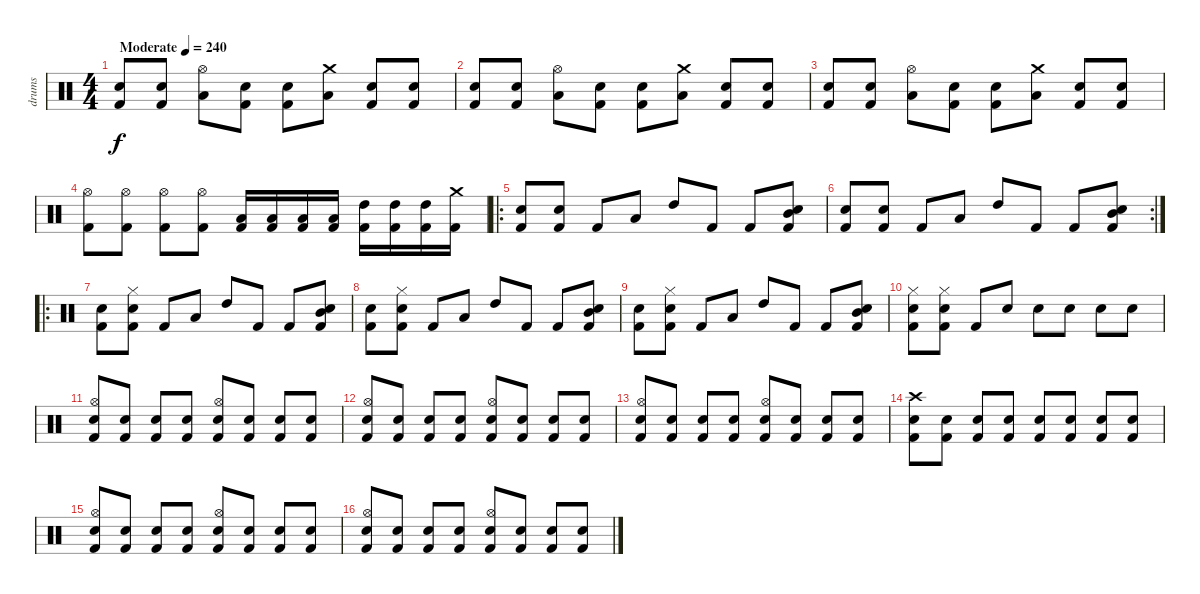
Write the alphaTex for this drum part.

\track ("drums" "drums") {instrument percussion}
\staff {score}
\articulation defaults
\ts (4 4)
\tempo (240 "Moderate")
\clef neutral
\ks c
("Electric Snare (hit)" "Kick (hit) 2").8{dy f} ("Electric Snare (hit)" "Kick (hit) 2").8 ("Low Tom (hit)" "Hi-Hat (open)").8 ("Snare (hit) 2" "Kick (hit) 2").8 ("Snare (hit) 2" "Kick (hit) 2").8 ("Low Tom (hit)" "Crash medium (hit)").8 ("Snare (hit) 2" "Kick (hit) 2").8 ("Snare (hit) 2" "Kick (hit) 2").8 |
("Electric Snare (hit)" "Kick (hit) 2").8 ("Electric Snare (hit)" "Kick (hit) 2").8 ("Low Tom (hit)" "Hi-Hat (open)").8 ("Snare (hit) 2" "Kick (hit) 2").8 ("Snare (hit) 2" "Kick (hit) 2").8 ("Low Tom (hit)" "Crash medium (hit)").8 ("Snare (hit) 2" "Kick (hit) 2").8 ("Snare (hit) 2" "Kick (hit) 2").8 |
("Electric Snare (hit)" "Kick (hit) 2").8 ("Electric Snare (hit)" "Kick (hit) 2").8 ("Low Tom (hit)" "Hi-Hat (open)").8 ("Snare (hit) 2" "Kick (hit) 2").8 ("Snare (hit) 2" "Kick (hit) 2").8 ("Low Tom (hit)" "Crash medium (hit)").8 ("Snare (hit) 2" "Kick (hit) 2").8 ("Snare (hit) 2" "Kick (hit) 2").8 |
("Hi-Hat (open)" "Kick (hit) 2").8 ("Hi-Hat (open)" "Kick (hit) 2").8 ("Hi-Hat (open)" "Kick (hit) 2").8 ("Hi-Hat (open)" "Kick (hit) 2").8 ("Low Tom (hit)" "Kick (hit) 2").16 ("Low Tom (hit)" "Kick (hit) 2").16 ("Low Tom (hit)" "Kick (hit) 2").16 ("Low Tom (hit)" "Kick (hit) 2").16 ("High Tom (hit)" "Kick (hit) 2").16 ("High Tom (hit)" "Kick (hit) 2").16 ("High Tom (hit)" "Kick (hit) 2").16 ("Crash medium (hit)" "Kick (hit) 2").16 |
\ro
("Electric Snare (hit)" "Kick (hit) 2").8 ("Electric Snare (hit)" "Kick (hit) 2").8 "Kick (hit) 2".8 "Low Tom (hit)".8 "High Tom (hit)".8 "Kick (hit) 2".8 "Kick (hit) 2".8 ("Mid Tom (hit)" "Snare (hit) 2" "Kick (hit) 2").8 |
\rc 2
("Electric Snare (hit)" "Kick (hit) 2").8 ("Electric Snare (hit)" "Kick (hit) 2").8 "Kick (hit) 2".8 "Low Tom (hit)".8 "High Tom (hit)".8 "Kick (hit) 2".8 "Kick (hit) 2".8 ("Mid Tom (hit)" "Snare (hit) 2" "Kick (hit) 2").8 |
\ro
("Electric Snare (hit)" "Kick (hit) 2").8 ("Hi-Hat (closed)" "Electric Snare (hit)" "Kick (hit) 2").8 "Kick (hit) 2".8 "Low Tom (hit)".8 "High Tom (hit)".8 "Kick (hit) 2".8 "Kick (hit) 2".8 ("Mid Tom (hit)" "Snare (hit) 2" "Kick (hit) 2").8 |
("Electric Snare (hit)" "Kick (hit) 2").8 ("Hi-Hat (closed)" "Electric Snare (hit)" "Kick (hit) 2").8 "Kick (hit) 2".8 "Low Tom (hit)".8 "High Tom (hit)".8 "Kick (hit) 2".8 "Kick (hit) 2".8 ("Mid Tom (hit)" "Snare (hit) 2" "Kick (hit) 2").8 |
("Electric Snare (hit)" "Kick (hit) 2").8 ("Hi-Hat (closed)" "Electric Snare (hit)" "Kick (hit) 2").8 "Kick (hit) 2".8 "Low Tom (hit)".8 "High Tom (hit)".8 "Kick (hit) 2".8 "Kick (hit) 2".8 ("Mid Tom (hit)" "Snare (hit) 2" "Kick (hit) 2").8 |
("Hi-Hat (closed)" "Electric Snare (hit)" "Kick (hit) 2").8 ("Hi-Hat (closed)" "Electric Snare (hit)" "Kick (hit) 2").8 "Kick (hit) 2".8 "Electric Snare (hit)".8 "Electric Snare (hit)".8 "Electric Snare (hit)".8 "Electric Snare (hit)".8 "Electric Snare (hit)".8 |
("Hi-Hat (open)" "Snare (hit) 2" "Kick (hit) 2").8 ("Snare (hit) 2" "Kick (hit) 2").8 ("Snare (hit) 2" "Kick (hit) 2").8 ("Snare (hit) 2" "Kick (hit) 2").8 ("Hi-Hat (open)" "Snare (hit) 2" "Kick (hit) 2").8 ("Snare (hit) 2" "Kick (hit) 2").8 ("Snare (hit) 2" "Kick (hit) 2").8 ("Snare (hit) 2" "Kick (hit) 2").8 |
("Hi-Hat (open)" "Snare (hit) 2" "Kick (hit) 2").8 ("Snare (hit) 2" "Kick (hit) 2").8 ("Snare (hit) 2" "Kick (hit) 2").8 ("Snare (hit) 2" "Kick (hit) 2").8 ("Hi-Hat (open)" "Snare (hit) 2" "Kick (hit) 2").8 ("Snare (hit) 2" "Kick (hit) 2").8 ("Snare (hit) 2" "Kick (hit) 2").8 ("Snare (hit) 2" "Kick (hit) 2").8 |
("Hi-Hat (open)" "Snare (hit) 2" "Kick (hit) 2").8 ("Snare (hit) 2" "Kick (hit) 2").8 ("Snare (hit) 2" "Kick (hit) 2").8 ("Snare (hit) 2" "Kick (hit) 2").8 ("Hi-Hat (open)" "Snare (hit) 2" "Kick (hit) 2").8 ("Snare (hit) 2" "Kick (hit) 2").8 ("Snare (hit) 2" "Kick (hit) 2").8 ("Snare (hit) 2" "Kick (hit) 2").8 |
("Crash high (hit)" "Snare (hit) 2" "Kick (hit) 2").8 ("Electric Snare (hit)" "Kick (hit) 2").8 ("Electric Snare (hit)" "Kick (hit) 2").8 ("Electric Snare (hit)" "Kick (hit) 2").8 ("Electric Snare (hit)" "Kick (hit) 2").8 ("Electric Snare (hit)" "Kick (hit) 2").8 ("Electric Snare (hit)" "Kick (hit) 2").8 ("Electric Snare (hit)" "Kick (hit) 2").8 |
("Hi-Hat (open)" "Snare (hit) 2" "Kick (hit) 2").8 ("Snare (hit) 2" "Kick (hit) 2").8 ("Snare (hit) 2" "Kick (hit) 2").8 ("Snare (hit) 2" "Kick (hit) 2").8 ("Hi-Hat (open)" "Snare (hit) 2" "Kick (hit) 2").8 ("Snare (hit) 2" "Kick (hit) 2").8 ("Snare (hit) 2" "Kick (hit) 2").8 ("Snare (hit) 2" "Kick (hit) 2").8 |
("Hi-Hat (open)" "Snare (hit) 2" "Kick (hit) 2").8 ("Snare (hit) 2" "Kick (hit) 2").8 ("Snare (hit) 2" "Kick (hit) 2").8 ("Snare (hit) 2" "Kick (hit) 2").8 ("Hi-Hat (open)" "Snare (hit) 2" "Kick (hit) 2").8 ("Snare (hit) 2" "Kick (hit) 2").8 ("Snare (hit) 2" "Kick (hit) 2").8 ("Snare (hit) 2" "Kick (hit) 2").8
